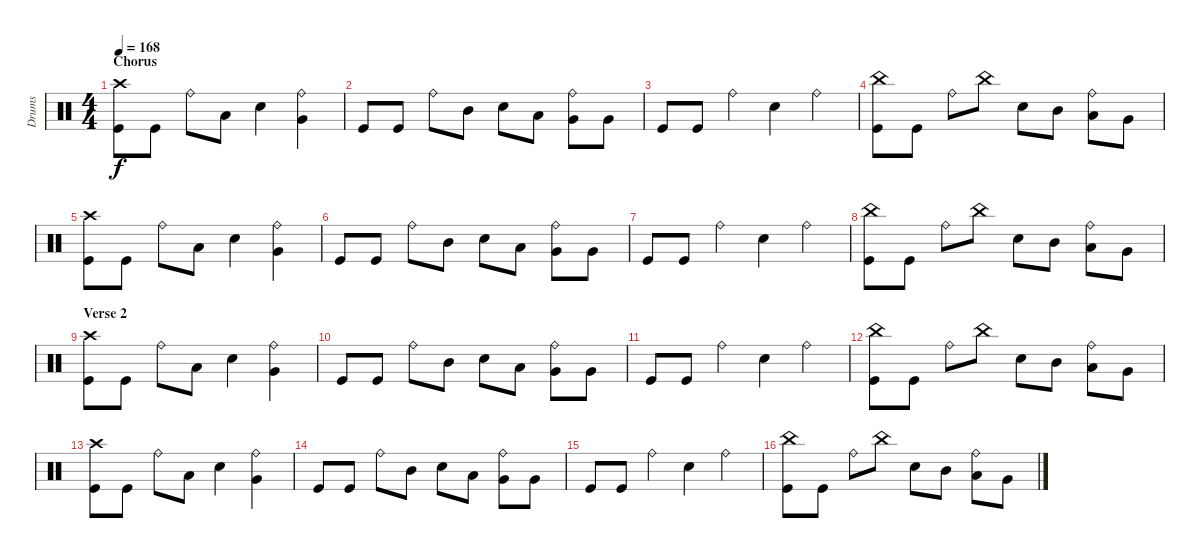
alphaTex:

\track ("Drums" "Drums") {instrument percussion}
\staff {score}
\articulation defaults
\ts (4 4)
\section ("" "Chorus")
\tempo 168
\clef neutral
\ks c
("Crash high (hit)" "Kick (hit)").8{dy f} "Kick (hit)".8 "Ride (bell)".8 "Low Tom (hit)".8 "Electric Snare (hit)".4 ("Ride (bell)" "Very Low Tom (hit)").4 |
"Kick (hit)".8 "Kick (hit)".8 "Ride (bell)".8 "Mid Tom (hit)".8 "Electric Snare (hit)".8 "Low Tom (hit)".8 ("Ride (bell)" "Very Low Tom (hit)").8 "Very Low Tom (hit)".8 |
"Kick (hit)".8 "Kick (hit)".8 "Ride (bell)".4 "Electric Snare (hit)".4 "Ride (bell)".4 |
("China (hit)" "Kick (hit)").8 "Kick (hit)".8 "Ride (bell)".8 "China (hit)".8 "Electric Snare (hit)".8 "Mid Tom (hit)".8 ("Ride (bell)" "Low Tom (hit)").8 "Very Low Tom (hit)".8 |
("Crash high (hit)" "Kick (hit)").8 "Kick (hit)".8 "Ride (bell)".8 "Low Tom (hit)".8 "Electric Snare (hit)".4 ("Ride (bell)" "Very Low Tom (hit)").4 |
"Kick (hit)".8 "Kick (hit)".8 "Ride (bell)".8 "Mid Tom (hit)".8 "Electric Snare (hit)".8 "Low Tom (hit)".8 ("Ride (bell)" "Very Low Tom (hit)").8 "Very Low Tom (hit)".8 |
"Kick (hit)".8 "Kick (hit)".8 "Ride (bell)".4 "Electric Snare (hit)".4 "Ride (bell)".4 |
("China (hit)" "Kick (hit)").8 "Kick (hit)".8 "Ride (bell)".8 "China (hit)".8 "Electric Snare (hit)".8 "Mid Tom (hit)".8 ("Ride (bell)" "Low Tom (hit)").8 "Very Low Tom (hit)".8 |
\section ("" "Verse 2")
("Crash high (hit)" "Kick (hit)").8 "Kick (hit)".8 "Ride (bell)".8 "Low Tom (hit)".8 "Electric Snare (hit)".4 ("Ride (bell)" "Very Low Tom (hit)").4 |
"Kick (hit)".8 "Kick (hit)".8 "Ride (bell)".8 "Mid Tom (hit)".8 "Electric Snare (hit)".8 "Low Tom (hit)".8 ("Ride (bell)" "Very Low Tom (hit)").8 "Very Low Tom (hit)".8 |
"Kick (hit)".8 "Kick (hit)".8 "Ride (bell)".4 "Electric Snare (hit)".4 "Ride (bell)".4 |
("China (hit)" "Kick (hit)").8 "Kick (hit)".8 "Ride (bell)".8 "China (hit)".8 "Electric Snare (hit)".8 "Mid Tom (hit)".8 ("Ride (bell)" "Low Tom (hit)").8 "Very Low Tom (hit)".8 |
("Crash high (hit)" "Kick (hit)").8 "Kick (hit)".8 "Ride (bell)".8 "Low Tom (hit)".8 "Electric Snare (hit)".4 ("Ride (bell)" "Very Low Tom (hit)").4 |
"Kick (hit)".8 "Kick (hit)".8 "Ride (bell)".8 "Mid Tom (hit)".8 "Electric Snare (hit)".8 "Low Tom (hit)".8 ("Ride (bell)" "Very Low Tom (hit)").8 "Very Low Tom (hit)".8 |
"Kick (hit)".8 "Kick (hit)".8 "Ride (bell)".4 "Electric Snare (hit)".4 "Ride (bell)".4 |
("China (hit)" "Kick (hit)").8 "Kick (hit)".8 "Ride (bell)".8 "China (hit)".8 "Electric Snare (hit)".8 "Mid Tom (hit)".8 ("Ride (bell)" "Low Tom (hit)").8 "Very Low Tom (hit)".8
